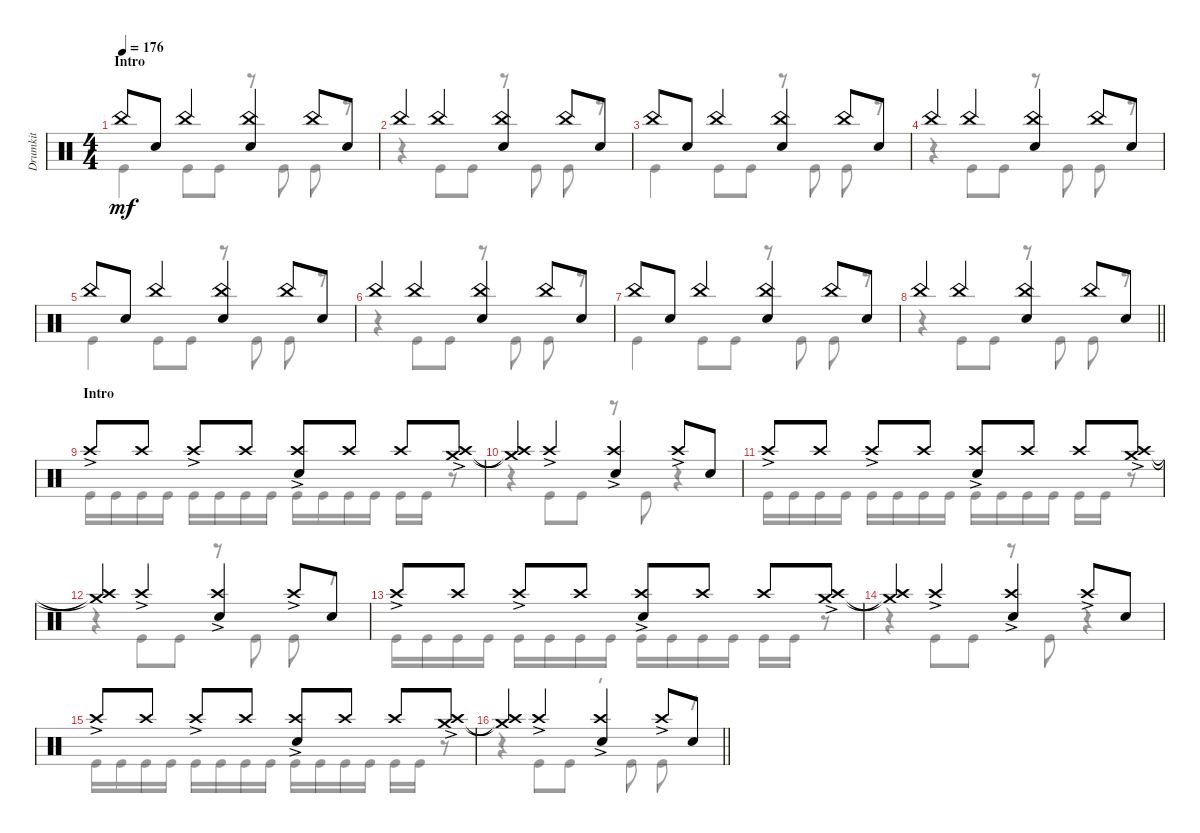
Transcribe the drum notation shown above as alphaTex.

\track ("Drumkit" "Drumkit") {instrument percussion}
\staff {score}
\articulation defaults
\voice
\ts (4 4)
\section ("" "Intro")
\tempo 176
\clef neutral
\ks c "China (hit)".8{dy mf} "Snare (hit) 2".8 "China (hit)".4
("Snare (hit) 2" "China (hit)").4 "China (hit)".8 "Snare (hit) 2".8 |
"China (hit)".4 "China (hit)".4 ("China (hit)" "Snare (hit) 2").4 "China (hit)".8 "Snare (hit) 2".8 |
"China (hit)".8 "Snare (hit) 2".8 "China (hit)".4 ("Snare (hit) 2" "China (hit)").4 "China (hit)".8 "Snare (hit) 2".8 |
"China (hit)".4 "China (hit)".4 ("China (hit)" "Snare (hit) 2").4 "China (hit)".8 "Snare (hit) 2".8 |
"China (hit)".8 "Snare (hit) 2".8 "China (hit)".4 ("Snare (hit) 2" "China (hit)").4 "China (hit)".8 "Snare (hit) 2".8 |
"China (hit)".4 "China (hit)".4 ("China (hit)" "Snare (hit) 2").4 "China (hit)".8 "Snare (hit) 2".8 |
"China (hit)".8 "Snare (hit) 2".8 "China (hit)".4 ("Snare (hit) 2" "China (hit)").4 "China (hit)".8 "Snare (hit) 2".8 |
\barLineRight lightlight "China (hit)".4 "China (hit)".4
("China (hit)" "Snare (hit) 2").4 "China (hit)".8 "Snare (hit) 2".8 |
\section ("" "Intro")
"Crash high (hit)"{ac}.8 "Crash high (hit)".8 "Crash high (hit)"{ac}.8 "Crash high (hit)".8 ("Snare (hit) 2" "Crash high (hit)"{ac}).8 "Crash high (hit)".8 "Crash high (hit)".8 ("Crash high (hit)"{ac} "Crash medium (hit)"{ac}).8 |
("Crash medium (hit)"{t} "Crash high (hit)"{t}).4 "Crash high (hit)"{ac}.4 ("Snare (hit) 2" "Crash high (hit)"{ac}).4 "Crash high (hit)"{ac}.8 "Snare (hit) 2".8 |
"Crash high (hit)"{ac}.8 "Crash high (hit)".8 "Crash high (hit)"{ac}.8 "Crash high (hit)".8 ("Snare (hit) 2" "Crash high (hit)"{ac}).8 "Crash high (hit)".8 "Crash high (hit)".8 ("Crash high (hit)"{ac} "Crash medium (hit)"{ac}).8 |
("Crash medium (hit)"{t} "Crash high (hit)"{t}).4 "Crash high (hit)"{ac}.4 ("Snare (hit) 2" "Crash high (hit)"{ac}).4 "Crash high (hit)"{ac}.8 "Snare (hit) 2".8 |
"Crash high (hit)"{ac}.8 "Crash high (hit)".8 "Crash high (hit)"{ac}.8 "Crash high (hit)".8 ("Snare (hit) 2" "Crash high (hit)"{ac}).8 "Crash high (hit)".8 "Crash high (hit)".8 ("Crash high (hit)"{ac} "Crash medium (hit)"{ac}).8 |
("Crash medium (hit)"{t} "Crash high (hit)"{t}).4 "Crash high (hit)"{ac}.4 ("Snare (hit) 2" "Crash high (hit)"{ac}).4 "Crash high (hit)"{ac}.8 "Snare (hit) 2".8 |
"Crash high (hit)"{ac}.8 "Crash high (hit)".8 "Crash high (hit)"{ac}.8 "Crash high (hit)".8 ("Snare (hit) 2" "Crash high (hit)"{ac}).8 "Crash high (hit)".8 "Crash high (hit)".8 ("Crash high (hit)"{ac} "Crash medium (hit)"{ac}).8 |
\barLineRight lightlight
("Crash medium (hit)"{t} "Crash high (hit)"{t}).4 "Crash high (hit)"{ac}.4 ("Snare (hit) 2" "Crash high (hit)"{ac}).4 "Crash high (hit)"{ac}.8 "Snare (hit) 2".8
\voice
\clef neutral
\ottava regular
\simile none
\ks c "Kick (hit)".4{dy mf} "Kick (hit)".8 "Kick (hit)".8
r.8 "Kick (hit)".8 "Kick (hit)".8 r.8 |
r.4 "Kick (hit)".8 "Kick (hit)".8 r.8 "Kick (hit)".8 "Kick (hit)".8 r.8 |
"Kick (hit)".4 "Kick (hit)".8 "Kick (hit)".8 r.8 "Kick (hit)".8 "Kick (hit)".8 r.8 |
r.4 "Kick (hit)".8 "Kick (hit)".8 r.8 "Kick (hit)".8 "Kick (hit)".8 r.8 |
"Kick (hit)".4 "Kick (hit)".8 "Kick (hit)".8 r.8 "Kick (hit)".8 "Kick (hit)".8 r.8 |
r.4 "Kick (hit)".8 "Kick (hit)".8 r.8 "Kick (hit)".8 "Kick (hit)".8 r.8 |
"Kick (hit)".4 "Kick (hit)".8 "Kick (hit)".8 r.8 "Kick (hit)".8 "Kick (hit)".8 r.8 |
\barLineRight lightlight
r.4 "Kick (hit)".8 "Kick (hit)".8 r.8 "Kick (hit)".8 "Kick (hit)".8 r.8 |
"Kick (hit)".16 "Kick (hit)".16 "Kick (hit)".16 "Kick (hit)".16 "Kick (hit)".16 "Kick (hit)".16 "Kick (hit)".16 "Kick (hit)".16 "Kick (hit)".16 "Kick (hit)".16 "Kick (hit)".16 "Kick (hit)".16 "Kick (hit)".16 "Kick (hit)".16 r.8 |
r.4 "Kick (hit)".8 "Kick (hit)".8 r.8 "Kick (hit)".8 r.4 |
"Kick (hit)".16 "Kick (hit)".16 "Kick (hit)".16 "Kick (hit)".16 "Kick (hit)".16 "Kick (hit)".16 "Kick (hit)".16 "Kick (hit)".16 "Kick (hit)".16 "Kick (hit)".16 "Kick (hit)".16 "Kick (hit)".16 "Kick (hit)".16 "Kick (hit)".16 r.8 |
r.4 "Kick (hit)".8 "Kick (hit)".8 r.8 "Kick (hit)".8 "Kick (hit)".8 r.8 |
"Kick (hit)".16 "Kick (hit)".16 "Kick (hit)".16 "Kick (hit)".16 "Kick (hit)".16 "Kick (hit)".16 "Kick (hit)".16 "Kick (hit)".16 "Kick (hit)".16 "Kick (hit)".16 "Kick (hit)".16 "Kick (hit)".16 "Kick (hit)".16 "Kick (hit)".16 r.8 |
r.4 "Kick (hit)".8 "Kick (hit)".8 r.8 "Kick (hit)".8 r.4 |
"Kick (hit)".16 "Kick (hit)".16 "Kick (hit)".16 "Kick (hit)".16 "Kick (hit)".16 "Kick (hit)".16 "Kick (hit)".16 "Kick (hit)".16 "Kick (hit)".16 "Kick (hit)".16 "Kick (hit)".16 "Kick (hit)".16 "Kick (hit)".16 "Kick (hit)".16 r.8 |
\barLineRight lightlight
r.4 "Kick (hit)".8 "Kick (hit)".8 r.8 "Kick (hit)".8 "Kick (hit)".8 r.8
